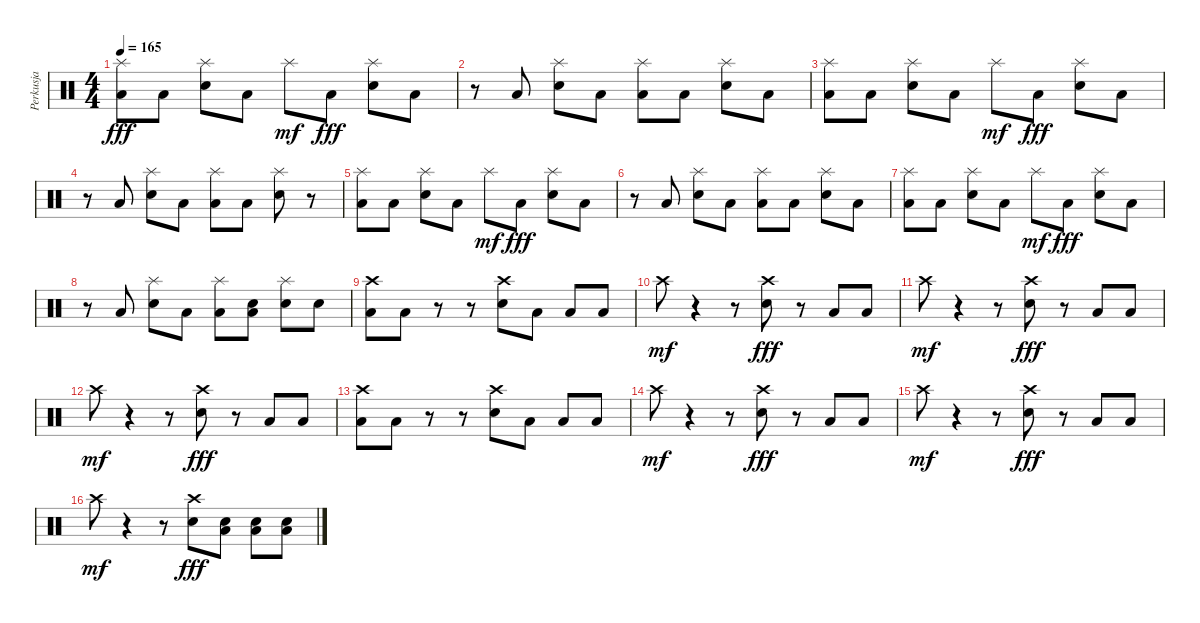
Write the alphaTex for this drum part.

\track ("Perkusja" "Perkusja") {instrument percussion}
\staff {score}
\articulation defaults
\ts (4 4)
\tempo 165
\clef neutral
\ks c
("Splash (hit)" "Low Tom (hit)").8{dy fff} "Low Tom (hit)".8 ("Splash (hit)" "Electric Snare (hit)").8 "Low Tom (hit)".8 "Splash (hit)".8{dy mf} "Low Tom (hit)".8{dy fff} ("Splash (hit)" "Electric Snare (hit)").8 "Low Tom (hit)".8 |
r.8 "Low Tom (hit)".8 ("Splash (hit)" "Electric Snare (hit)").8 "Low Tom (hit)".8 ("Splash (hit)" "Low Tom (hit)").8 "Low Tom (hit)".8 ("Splash (hit)" "Electric Snare (hit)").8 "Low Tom (hit)".8 |
("Splash (hit)" "Low Tom (hit)").8 "Low Tom (hit)".8 ("Splash (hit)" "Electric Snare (hit)").8 "Low Tom (hit)".8 "Splash (hit)".8{dy mf} "Low Tom (hit)".8{dy fff} ("Splash (hit)" "Electric Snare (hit)").8 "Low Tom (hit)".8 |
r.8 "Low Tom (hit)".8 ("Splash (hit)" "Electric Snare (hit)").8 "Low Tom (hit)".8 ("Splash (hit)" "Low Tom (hit)").8 "Low Tom (hit)".8 ("Splash (hit)" "Electric Snare (hit)").8 r.8 |
("Splash (hit)" "Low Tom (hit)").8 "Low Tom (hit)".8 ("Splash (hit)" "Electric Snare (hit)").8 "Low Tom (hit)".8 "Splash (hit)".8{dy mf} "Low Tom (hit)".8{dy fff} ("Splash (hit)" "Electric Snare (hit)").8 "Low Tom (hit)".8 |
r.8 "Low Tom (hit)".8 ("Splash (hit)" "Electric Snare (hit)").8 "Low Tom (hit)".8 ("Splash (hit)" "Low Tom (hit)").8 "Low Tom (hit)".8 ("Splash (hit)" "Electric Snare (hit)").8 "Low Tom (hit)".8 |
("Splash (hit)" "Low Tom (hit)").8 "Low Tom (hit)".8 ("Splash (hit)" "Electric Snare (hit)").8 "Low Tom (hit)".8 "Splash (hit)".8{dy mf} "Low Tom (hit)".8{dy fff} ("Splash (hit)" "Electric Snare (hit)").8 "Low Tom (hit)".8 |
r.8 "Low Tom (hit)".8 ("Splash (hit)" "Electric Snare (hit)").8 "Low Tom (hit)".8 ("Splash (hit)" "Low Tom (hit)").8 ("Electric Snare (hit)" "Low Tom (hit)").8 ("Splash (hit)" "Electric Snare (hit)").8 "Electric Snare (hit)".8 |
("Crash high (hit)" "Low Tom (hit)").8 "Low Tom (hit)".8 r.8 r.8 ("Crash high (hit)" "Electric Snare (hit)").8 "Low Tom (hit)".8 "Low Tom (hit)".8 "Low Tom (hit)".8 |
"Crash high (hit)".8{dy mf} r.4 r.8 ("Crash high (hit)" "Electric Snare (hit)").8{dy fff} r.8 "Low Tom (hit)".8 "Low Tom (hit)".8 |
"Crash high (hit)".8{dy mf} r.4 r.8 ("Crash high (hit)" "Electric Snare (hit)").8{dy fff} r.8 "Low Tom (hit)".8 "Low Tom (hit)".8 |
"Crash high (hit)".8{dy mf} r.4 r.8 ("Crash high (hit)" "Electric Snare (hit)").8{dy fff} r.8 "Low Tom (hit)".8 "Low Tom (hit)".8 |
("Crash high (hit)" "Low Tom (hit)").8 "Low Tom (hit)".8 r.8 r.8 ("Crash high (hit)" "Electric Snare (hit)").8 "Low Tom (hit)".8 "Low Tom (hit)".8 "Low Tom (hit)".8 |
"Crash high (hit)".8{dy mf} r.4 r.8 ("Crash high (hit)" "Electric Snare (hit)").8{dy fff} r.8 "Low Tom (hit)".8 "Low Tom (hit)".8 |
"Crash high (hit)".8{dy mf} r.4 r.8 ("Crash high (hit)" "Electric Snare (hit)").8{dy fff} r.8 "Low Tom (hit)".8 "Low Tom (hit)".8 |
"Crash high (hit)".8{dy mf} r.4 r.8 ("Crash high (hit)" "Electric Snare (hit)").8{dy fff} ("Electric Snare (hit)" "Low Tom (hit)").8 ("Electric Snare (hit)" "Low Tom (hit)").8 ("Electric Snare (hit)" "Low Tom (hit)").8
